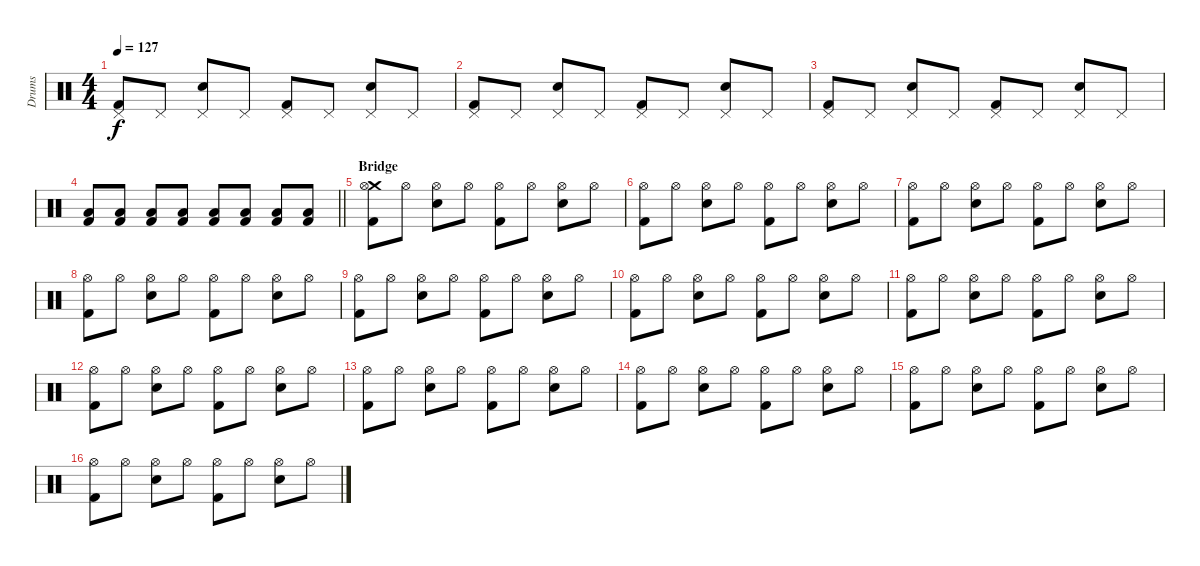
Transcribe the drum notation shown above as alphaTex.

\track ("Drums" "Drums") {instrument percussion}
\staff {score}
\articulation defaults
\ts (4 4)
\tempo 127
\clef neutral
\ks c
("Pedal Hi-Hat (hit)" "Kick (hit) 2").8{dy f} "Pedal Hi-Hat (hit)".8 ("Pedal Hi-Hat (hit)" "Electric Snare (hit)").8 "Pedal Hi-Hat (hit)".8 ("Pedal Hi-Hat (hit)" "Kick (hit) 2").8 "Pedal Hi-Hat (hit)".8 ("Pedal Hi-Hat (hit)" "Electric Snare (hit)").8 "Pedal Hi-Hat (hit)".8 |
("Pedal Hi-Hat (hit)" "Kick (hit) 2").8 "Pedal Hi-Hat (hit)".8 ("Pedal Hi-Hat (hit)" "Electric Snare (hit)").8 "Pedal Hi-Hat (hit)".8 ("Pedal Hi-Hat (hit)" "Kick (hit) 2").8 "Pedal Hi-Hat (hit)".8 ("Pedal Hi-Hat (hit)" "Electric Snare (hit)").8 "Pedal Hi-Hat (hit)".8 |
("Pedal Hi-Hat (hit)" "Kick (hit) 2").8 "Pedal Hi-Hat (hit)".8 ("Pedal Hi-Hat (hit)" "Electric Snare (hit)").8 "Pedal Hi-Hat (hit)".8 ("Pedal Hi-Hat (hit)" "Kick (hit) 2").8 "Pedal Hi-Hat (hit)".8 ("Pedal Hi-Hat (hit)" "Electric Snare (hit)").8 "Pedal Hi-Hat (hit)".8 |
\barLineRight lightlight
("Low Floor Tom (hit)" "Kick (hit) 2").8 ("Low Floor Tom (hit)" "Kick (hit) 2").8 ("Low Floor Tom (hit)" "Kick (hit) 2").8 ("Low Floor Tom (hit)" "Kick (hit) 2").8 ("Low Floor Tom (hit)" "Kick (hit) 2").8 ("Low Floor Tom (hit)" "Kick (hit) 2").8 ("Low Floor Tom (hit)" "Kick (hit) 2").8 ("Low Floor Tom (hit)" "Kick (hit) 2").8 |
\section ("" "Bridge")
("Crash medium (hit)" "Hi-Hat (open)" "Kick (hit) 2").8 "Hi-Hat (open)".8 ("Hi-Hat (open)" "Electric Snare (hit)").8 "Hi-Hat (open)".8 ("Hi-Hat (open)" "Kick (hit) 2").8 "Hi-Hat (open)".8 ("Hi-Hat (open)" "Electric Snare (hit)").8 "Hi-Hat (open)".8 |
("Hi-Hat (open)" "Kick (hit) 2").8 "Hi-Hat (open)".8 ("Hi-Hat (open)" "Electric Snare (hit)").8 "Hi-Hat (open)".8 ("Hi-Hat (open)" "Kick (hit) 2").8 "Hi-Hat (open)".8 ("Hi-Hat (open)" "Electric Snare (hit)").8 "Hi-Hat (open)".8 |
("Hi-Hat (open)" "Kick (hit) 2").8 "Hi-Hat (open)".8 ("Hi-Hat (open)" "Electric Snare (hit)").8 "Hi-Hat (open)".8 ("Hi-Hat (open)" "Kick (hit) 2").8 "Hi-Hat (open)".8 ("Hi-Hat (open)" "Electric Snare (hit)").8 "Hi-Hat (open)".8 |
("Hi-Hat (open)" "Kick (hit) 2").8 "Hi-Hat (open)".8 ("Hi-Hat (open)" "Electric Snare (hit)").8 "Hi-Hat (open)".8 ("Hi-Hat (open)" "Kick (hit) 2").8 "Hi-Hat (open)".8 ("Hi-Hat (open)" "Electric Snare (hit)").8 "Hi-Hat (open)".8 |
("Hi-Hat (open)" "Kick (hit) 2").8 "Hi-Hat (open)".8 ("Hi-Hat (open)" "Electric Snare (hit)").8 "Hi-Hat (open)".8 ("Hi-Hat (open)" "Kick (hit) 2").8 "Hi-Hat (open)".8 ("Hi-Hat (open)" "Electric Snare (hit)").8 "Hi-Hat (open)".8 |
("Hi-Hat (open)" "Kick (hit) 2").8 "Hi-Hat (open)".8 ("Hi-Hat (open)" "Electric Snare (hit)").8 "Hi-Hat (open)".8 ("Hi-Hat (open)" "Kick (hit) 2").8 "Hi-Hat (open)".8 ("Hi-Hat (open)" "Electric Snare (hit)").8 "Hi-Hat (open)".8 |
("Hi-Hat (open)" "Kick (hit) 2").8 "Hi-Hat (open)".8 ("Hi-Hat (open)" "Electric Snare (hit)").8 "Hi-Hat (open)".8 ("Hi-Hat (open)" "Kick (hit) 2").8 "Hi-Hat (open)".8 ("Hi-Hat (open)" "Electric Snare (hit)").8 "Hi-Hat (open)".8 |
("Hi-Hat (open)" "Kick (hit) 2").8 "Hi-Hat (open)".8 ("Hi-Hat (open)" "Electric Snare (hit)").8 "Hi-Hat (open)".8 ("Hi-Hat (open)" "Kick (hit) 2").8 "Hi-Hat (open)".8 ("Hi-Hat (open)" "Electric Snare (hit)").8 "Hi-Hat (open)".8 |
("Hi-Hat (open)" "Kick (hit) 2").8 "Hi-Hat (open)".8 ("Hi-Hat (open)" "Electric Snare (hit)").8 "Hi-Hat (open)".8 ("Hi-Hat (open)" "Kick (hit) 2").8 "Hi-Hat (open)".8 ("Hi-Hat (open)" "Electric Snare (hit)").8 "Hi-Hat (open)".8 |
("Hi-Hat (open)" "Kick (hit) 2").8 "Hi-Hat (open)".8 ("Hi-Hat (open)" "Electric Snare (hit)").8 "Hi-Hat (open)".8 ("Hi-Hat (open)" "Kick (hit) 2").8 "Hi-Hat (open)".8 ("Hi-Hat (open)" "Electric Snare (hit)").8 "Hi-Hat (open)".8 |
("Hi-Hat (open)" "Kick (hit) 2").8 "Hi-Hat (open)".8 ("Hi-Hat (open)" "Electric Snare (hit)").8 "Hi-Hat (open)".8 ("Hi-Hat (open)" "Kick (hit) 2").8 "Hi-Hat (open)".8 ("Hi-Hat (open)" "Electric Snare (hit)").8 "Hi-Hat (open)".8 |
("Hi-Hat (open)" "Kick (hit) 2").8 "Hi-Hat (open)".8 ("Hi-Hat (open)" "Electric Snare (hit)").8 "Hi-Hat (open)".8 ("Hi-Hat (open)" "Kick (hit) 2").8 "Hi-Hat (open)".8 ("Hi-Hat (open)" "Electric Snare (hit)").8 "Hi-Hat (open)".8
